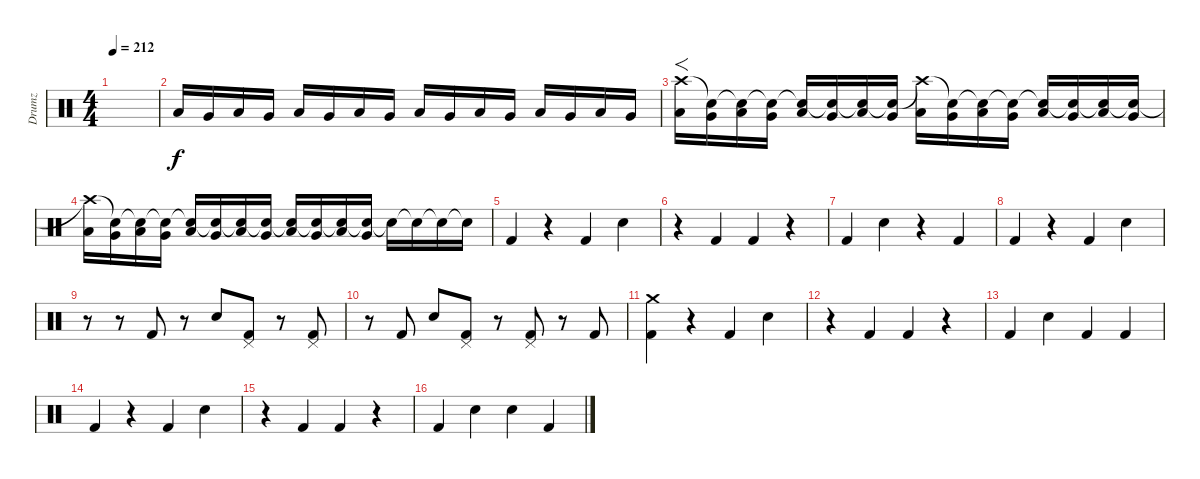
\track ("Drumz" "Drumz") {instrument percussion}
\staff {score}
\articulation defaults
\ts (4 4)
\tempo 212
\clef neutral
\ks c
|
"Low Floor Tom (hit)".16{volume 13} "Very Low Tom (hit)".16{volume 13} "Low Floor Tom (hit)".16{volume 8} "Very Low Tom (hit)".16{volume 8} "Low Floor Tom (hit)".16{volume 8} "Very Low Tom (hit)".16{volume 6} "Low Floor Tom (hit)".16{volume 6} "Very Low Tom (hit)".16{volume 7} "Low Floor Tom (hit)".16{volume 6} "Very Low Tom (hit)".16{volume 6} "Low Floor Tom (hit)".16{volume 6} "Very Low Tom (hit)".16{volume 6} "Low Floor Tom (hit)".16{volume 6} "Very Low Tom (hit)".16{volume 6} "Low Floor Tom (hit)".16{volume 6} "Very Low Tom (hit)".16{volume 6} |
("Crash high (hit)" "Low Floor Tom (hit)").16{f volume 7} ("Snare (hit)"{t} "Very Low Tom (hit)").16{volume 6} ("Snare (hit)"{t} "Low Floor Tom (hit)").16{volume 6} ("Snare (hit)"{t} "Very Low Tom (hit)").16{volume 7} ("Snare (hit)"{t} "Low Floor Tom (hit)").16{volume 7} ("Snare (hit)"{t} "Very Low Tom (hit)").16{volume 6} ("Snare (hit)"{t} "Low Floor Tom (hit)").16{volume 7} ("Snare (hit)"{t} "Very Low Tom (hit)").16{volume 6} ("Crash high (hit)"{t} "Low Floor Tom (hit)").16{volume 7} ("Snare (hit)"{t} "Very Low Tom (hit)").16{volume 6} ("Snare (hit)"{t} "Low Floor Tom (hit)").16{volume 7} ("Snare (hit)"{t} "Very Low Tom (hit)").16{volume 7} ("Snare (hit)"{t} "Low Floor Tom (hit)").16{volume 6} ("Snare (hit)"{t} "Very Low Tom (hit)").16{volume 6} ("Snare (hit)"{t} "Low Floor Tom (hit)").16{volume 8} ("Snare (hit)"{t} "Very Low Tom (hit)").16{volume 8} |
("Crash high (hit)"{t} "Low Floor Tom (hit)").16{volume 9} ("Snare (hit)"{t} "Very Low Tom (hit)").16{volume 8} ("Snare (hit)"{t} "Low Floor Tom (hit)").16{volume 7} ("Snare (hit)"{t} "Very Low Tom (hit)").16{volume 7} ("Snare (hit)"{t} "Low Floor Tom (hit)").16{volume 8} ("Snare (hit)"{t} "Very Low Tom (hit)").16{volume 8} ("Snare (hit)"{t} "Low Floor Tom (hit)").16{volume 8} ("Snare (hit)"{t} "Very Low Tom (hit)").16{volume 8} ("Snare (hit)"{t} "Low Floor Tom (hit)").16{volume 7} ("Snare (hit)"{t} "Very Low Tom (hit)").16{volume 8} ("Snare (hit)"{t} "Low Floor Tom (hit)").16{volume 8} ("Snare (hit)"{t} "Very Low Tom (hit)").16{volume 7} "Snare (hit)"{t}.16{volume 13} "Snare (hit)"{t}.16 "Snare (hit)"{t}.16 "Snare (hit)"{t}.16 |
"Kick (hit) 2".4 r.4 "Kick (hit) 2".4 "Snare (hit) 2".4 |
r.4 "Kick (hit) 2".4 "Kick (hit) 2".4 r.4 |
"Kick (hit) 2".4 "Snare (hit) 2".4 r.4 "Kick (hit) 2".4 |
"Kick (hit) 2".4 r.4 "Kick (hit) 2".4 "Snare (hit) 2".4 |
r.8 r.8 "Kick (hit) 2".8 r.8 "Snare (hit) 2".8 ("Kick (hit) 2" "Pedal Hi-Hat (hit)").8 r.8 ("Kick (hit) 2" "Pedal Hi-Hat (hit)").8 |
r.8 "Kick (hit) 2".8 "Snare (hit) 2".8 ("Kick (hit) 2" "Pedal Hi-Hat (hit)").8 r.8 ("Kick (hit) 2" "Pedal Hi-Hat (hit)").8 r.8 "Kick (hit) 2".8 |
("Kick (hit) 2" "Crash medium (hit)").4 r.4 "Kick (hit) 2".4 "Snare (hit) 2".4 |
r.4 "Kick (hit) 2".4 "Kick (hit) 2".4 r.4 |
"Kick (hit) 2".4 "Snare (hit) 2".4 "Kick (hit) 2".4 "Kick (hit) 2".4 |
"Kick (hit) 2".4 r.4 "Kick (hit) 2".4 "Snare (hit) 2".4 |
r.4 "Kick (hit) 2".4 "Kick (hit) 2".4 r.4 |
"Kick (hit) 2".4 "Snare (hit) 2".4 "Snare (hit) 2".4 "Kick (hit) 2".4
